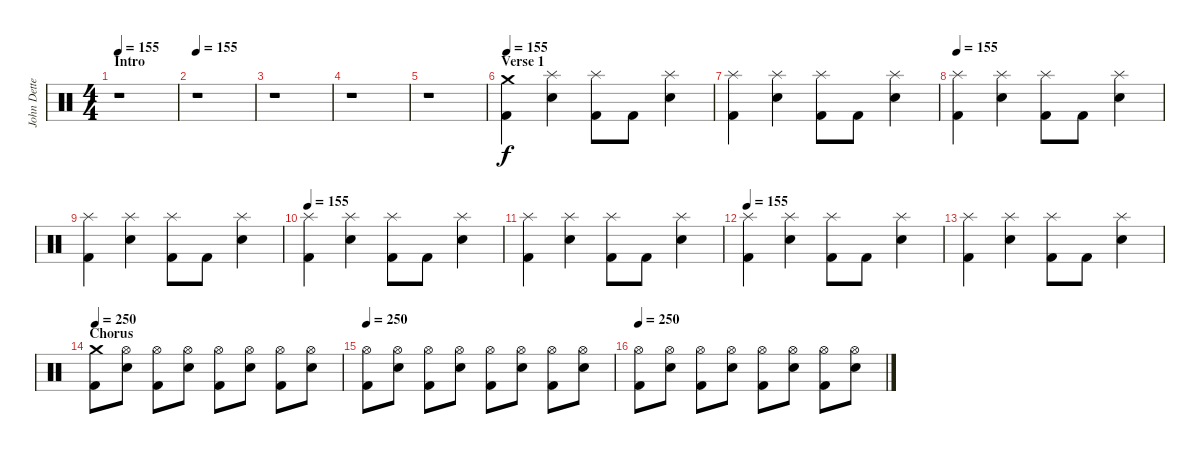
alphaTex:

\track ("John Dette" "John Dette") {instrument percussion}
\staff {score}
\articulation defaults
\ts (4 4)
\section ("" "Intro")
\tempo 155
\clef neutral
\ks c
r.1{dy f} |
\tempo 155
r.1 |
r.1 |
r.1 |
r.1 |
\section ("" "Verse 1")
\tempo 155
("Crash medium (hit)" "Kick (hit) 2").4 ("Splash (hit)" "Snare (hit) 2").4 ("Splash (hit)" "Kick (hit) 2").8 "Kick (hit) 2".8 ("Splash (hit)" "Snare (hit) 2").4 |
("Splash (hit)" "Kick (hit) 2").4 ("Splash (hit)" "Snare (hit) 2").4 ("Splash (hit)" "Kick (hit) 2").8 "Kick (hit) 2".8 ("Splash (hit)" "Snare (hit) 2").4 |
\tempo 155
("Splash (hit)" "Kick (hit) 2").4 ("Splash (hit)" "Snare (hit) 2").4 ("Splash (hit)" "Kick (hit) 2").8 "Kick (hit) 2".8 ("Splash (hit)" "Snare (hit) 2").4 |
("Splash (hit)" "Kick (hit) 2").4 ("Splash (hit)" "Snare (hit) 2").4 ("Splash (hit)" "Kick (hit) 2").8 "Kick (hit) 2".8 ("Splash (hit)" "Snare (hit) 2").4 |
\tempo 155
("Splash (hit)" "Kick (hit) 2").4 ("Splash (hit)" "Snare (hit) 2").4 ("Splash (hit)" "Kick (hit) 2").8 "Kick (hit) 2".8 ("Splash (hit)" "Snare (hit) 2").4 |
("Splash (hit)" "Kick (hit) 2").4 ("Splash (hit)" "Snare (hit) 2").4 ("Splash (hit)" "Kick (hit) 2").8 "Kick (hit) 2".8 ("Splash (hit)" "Snare (hit) 2").4 |
\tempo 155
("Splash (hit)" "Kick (hit) 2").4 ("Splash (hit)" "Snare (hit) 2").4 ("Splash (hit)" "Kick (hit) 2").8 "Kick (hit) 2".8 ("Splash (hit)" "Snare (hit) 2").4 |
("Splash (hit)" "Kick (hit) 2").4 ("Splash (hit)" "Snare (hit) 2").4 ("Splash (hit)" "Kick (hit) 2").8 "Kick (hit) 2".8 ("Splash (hit)" "Snare (hit) 2").4 |
\section ("" "Chorus")
\tempo 250
("Crash medium (hit)" "Kick (hit) 2").8 ("Hi-Hat (open)" "Snare (hit) 2").8 ("Hi-Hat (open)" "Kick (hit) 2").8 ("Hi-Hat (open)" "Snare (hit) 2").8 ("Hi-Hat (open)" "Kick (hit) 2").8 ("Hi-Hat (open)" "Snare (hit) 2").8 ("Hi-Hat (open)" "Kick (hit) 2").8 ("Hi-Hat (open)" "Snare (hit) 2").8 |
\tempo 250
("Hi-Hat (open)" "Kick (hit) 2").8 ("Hi-Hat (open)" "Snare (hit) 2").8 ("Hi-Hat (open)" "Kick (hit) 2").8 ("Hi-Hat (open)" "Snare (hit) 2").8 ("Hi-Hat (open)" "Kick (hit) 2").8 ("Hi-Hat (open)" "Snare (hit) 2").8 ("Hi-Hat (open)" "Kick (hit) 2").8 ("Hi-Hat (open)" "Snare (hit) 2").8 |
\tempo 250
("Hi-Hat (open)" "Kick (hit) 2").8 ("Hi-Hat (open)" "Snare (hit) 2").8 ("Hi-Hat (open)" "Kick (hit) 2").8 ("Hi-Hat (open)" "Snare (hit) 2").8 ("Hi-Hat (open)" "Kick (hit) 2").8 ("Hi-Hat (open)" "Snare (hit) 2").8 ("Hi-Hat (open)" "Kick (hit) 2").8 ("Hi-Hat (open)" "Snare (hit) 2").8
